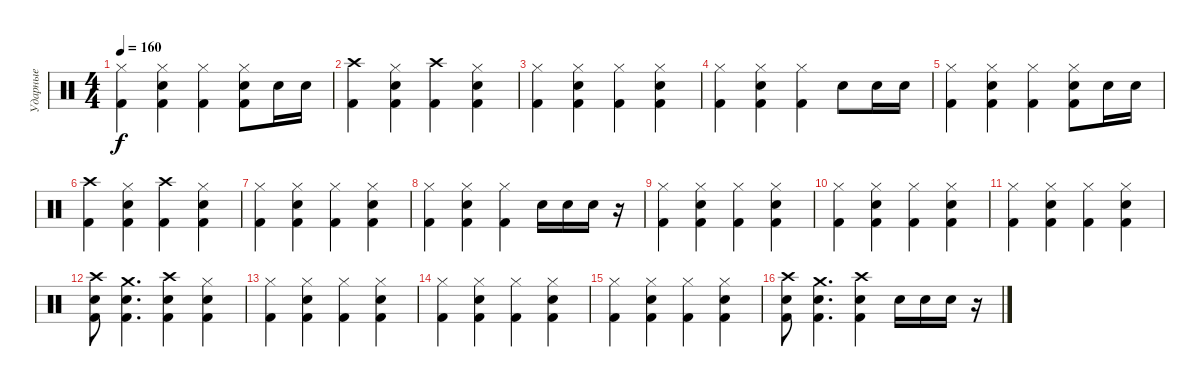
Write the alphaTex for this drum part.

\track ("Ударные" "Ударные") {instrument percussion}
\staff {score}
\articulation defaults
\ts (4 4)
\tempo 160
\clef neutral
\ks c
("Hi-Hat (closed)" "Kick (hit) 2").4{dy f} ("Hi-Hat (closed)" "Snare (hit) 2" "Kick (hit) 2").4 ("Hi-Hat (closed)" "Kick (hit) 2").4 ("Hi-Hat (closed)" "Snare (hit) 2" "Kick (hit) 2").8 "Snare (hit) 2".16 "Snare (hit) 2".16 |
("Crash high (hit)" "Kick (hit) 2").4 ("Hi-Hat (closed)" "Snare (hit) 2" "Kick (hit) 2").4 ("Crash high (hit)" "Kick (hit) 2").4 ("Hi-Hat (closed)" "Snare (hit) 2" "Kick (hit) 2").4 |
("Hi-Hat (closed)" "Kick (hit) 2").4 ("Hi-Hat (closed)" "Snare (hit) 2" "Kick (hit) 2").4 ("Hi-Hat (closed)" "Kick (hit) 2").4 ("Hi-Hat (closed)" "Snare (hit) 2" "Kick (hit) 2").4 |
("Hi-Hat (closed)" "Kick (hit) 2").4 ("Hi-Hat (closed)" "Snare (hit) 2" "Kick (hit) 2").4 ("Hi-Hat (closed)" "Kick (hit) 2").4 "Snare (hit) 2".8 "Snare (hit) 2".16 "Snare (hit) 2".16 |
("Hi-Hat (closed)" "Kick (hit) 2").4 ("Hi-Hat (closed)" "Snare (hit) 2" "Kick (hit) 2").4 ("Hi-Hat (closed)" "Kick (hit) 2").4 ("Hi-Hat (closed)" "Snare (hit) 2" "Kick (hit) 2").8 "Snare (hit) 2".16 "Snare (hit) 2".16 |
("Crash high (hit)" "Kick (hit) 2").4 ("Hi-Hat (closed)" "Snare (hit) 2" "Kick (hit) 2").4 ("Crash high (hit)" "Kick (hit) 2").4 ("Hi-Hat (closed)" "Snare (hit) 2" "Kick (hit) 2").4 |
("Hi-Hat (closed)" "Kick (hit) 2").4 ("Hi-Hat (closed)" "Snare (hit) 2" "Kick (hit) 2").4 ("Hi-Hat (closed)" "Kick (hit) 2").4 ("Hi-Hat (closed)" "Snare (hit) 2" "Kick (hit) 2").4 |
("Hi-Hat (closed)" "Kick (hit) 2").4 ("Hi-Hat (closed)" "Snare (hit) 2" "Kick (hit) 2").4 ("Hi-Hat (closed)" "Kick (hit) 2").4 "Snare (hit) 2".16 "Snare (hit) 2".16 "Snare (hit) 2".16 r.16 |
("Hi-Hat (closed)" "Kick (hit) 2").4 ("Hi-Hat (closed)" "Snare (hit) 2" "Kick (hit) 2").4 ("Hi-Hat (closed)" "Kick (hit) 2").4 ("Hi-Hat (closed)" "Snare (hit) 2" "Kick (hit) 2").4 |
("Hi-Hat (closed)" "Kick (hit) 2").4 ("Hi-Hat (closed)" "Snare (hit) 2" "Kick (hit) 2").4 ("Hi-Hat (closed)" "Kick (hit) 2").4 ("Hi-Hat (closed)" "Snare (hit) 2" "Kick (hit) 2").4 |
("Hi-Hat (closed)" "Kick (hit) 2").4 ("Hi-Hat (closed)" "Snare (hit) 2" "Kick (hit) 2").4 ("Hi-Hat (closed)" "Kick (hit) 2").4 ("Hi-Hat (closed)" "Snare (hit) 2" "Kick (hit) 2").4 |
("Crash high (hit)" "Snare (hit) 2" "Kick (hit) 2").8 ("Crash medium (hit)" "Snare (hit) 2" "Kick (hit) 2").4{d} ("Crash high (hit)" "Snare (hit) 2" "Kick (hit) 2").4 ("Hi-Hat (closed)" "Snare (hit) 2" "Kick (hit) 2").4 |
("Hi-Hat (closed)" "Kick (hit) 2").4 ("Hi-Hat (closed)" "Snare (hit) 2" "Kick (hit) 2").4 ("Hi-Hat (closed)" "Kick (hit) 2").4 ("Hi-Hat (closed)" "Snare (hit) 2" "Kick (hit) 2").4 |
("Hi-Hat (closed)" "Kick (hit) 2").4 ("Hi-Hat (closed)" "Snare (hit) 2" "Kick (hit) 2").4 ("Hi-Hat (closed)" "Kick (hit) 2").4 ("Hi-Hat (closed)" "Snare (hit) 2" "Kick (hit) 2").4 |
("Hi-Hat (closed)" "Kick (hit) 2").4 ("Hi-Hat (closed)" "Snare (hit) 2" "Kick (hit) 2").4 ("Hi-Hat (closed)" "Kick (hit) 2").4 ("Hi-Hat (closed)" "Snare (hit) 2" "Kick (hit) 2").4 |
("Crash high (hit)" "Snare (hit) 2" "Kick (hit) 2").8 ("Crash medium (hit)" "Snare (hit) 2" "Kick (hit) 2").4{d} ("Crash high (hit)" "Snare (hit) 2" "Kick (hit) 2").4 "Snare (hit) 2".16 "Snare (hit) 2".16 "Snare (hit) 2".16 r.16
